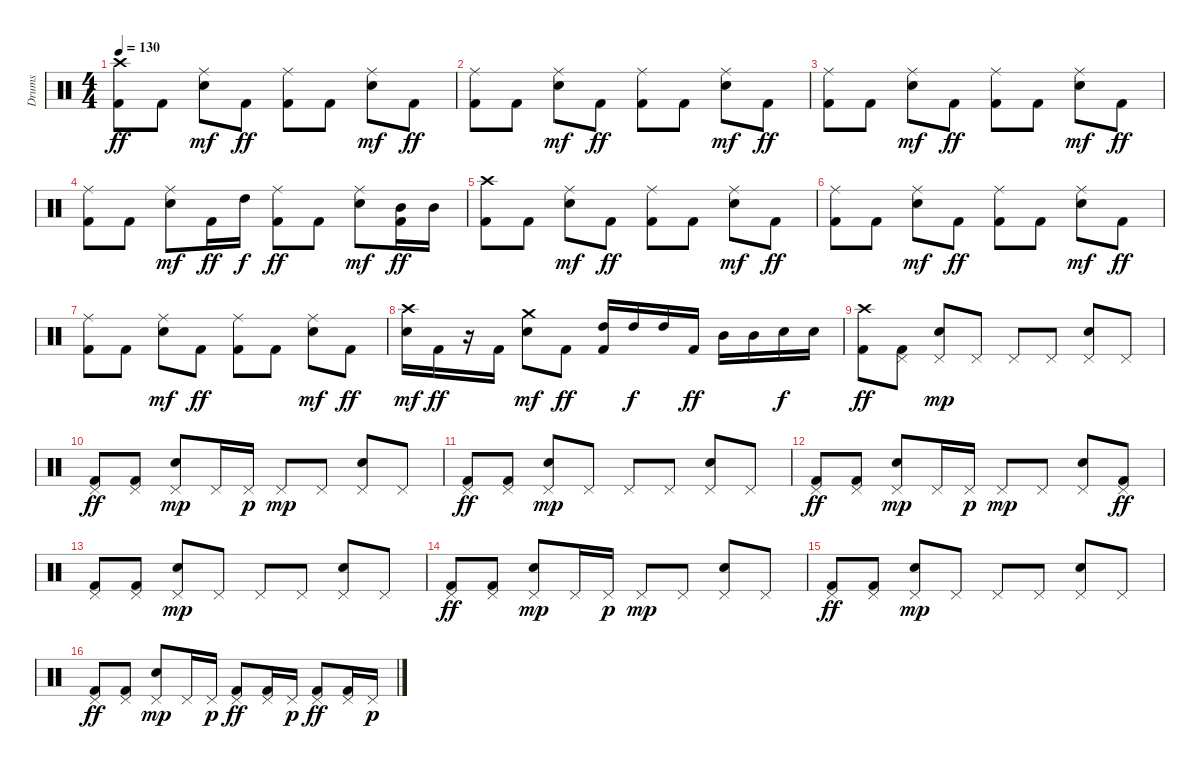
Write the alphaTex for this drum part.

\track ("Drums" "Drums") {instrument percussion}
\staff {score}
\articulation defaults
\ts (4 4)
\tempo 130
\clef neutral
\ks c
("Crash high (hit)" "Kick (hit) 2").8{dy ff} "Kick (hit) 2".8 ("Ride (middle)" "Electric Snare (hit)").8{dy mf} "Kick (hit) 2".8{dy ff} ("Ride (middle)" "Kick (hit) 2").8 "Kick (hit) 2".8 ("Ride (middle)" "Electric Snare (hit)").8{dy mf} "Kick (hit) 2".8{dy ff} |
("Ride (middle)" "Kick (hit) 2").8 "Kick (hit) 2".8 ("Ride (middle)" "Electric Snare (hit)").8{dy mf} "Kick (hit) 2".8{dy ff} ("Ride (middle)" "Kick (hit) 2").8 "Kick (hit) 2".8 ("Ride (middle)" "Electric Snare (hit)").8{dy mf} "Kick (hit) 2".8{dy ff} |
("Ride (middle)" "Kick (hit) 2").8 "Kick (hit) 2".8 ("Ride (middle)" "Electric Snare (hit)").8{dy mf} "Kick (hit) 2".8{dy ff} ("Ride (middle)" "Kick (hit) 2").8 "Kick (hit) 2".8 ("Ride (middle)" "Electric Snare (hit)").8{dy mf} "Kick (hit) 2".8{dy ff} |
("Ride (middle)" "Kick (hit) 2").8 "Kick (hit) 2".8 ("Ride (middle)" "Electric Snare (hit)").8{dy mf} "Kick (hit) 2".16{dy ff} "High Tom (hit)".16{dy f} ("Ride (middle)" "Kick (hit) 2").8{dy ff} "Kick (hit) 2".8 ("Ride (middle)" "Electric Snare (hit)").8{dy mf} ("Mid Tom (hit)" "Kick (hit) 2").16{dy ff} "Mid Tom (hit)".16 |
("Crash high (hit)" "Kick (hit) 2").8 "Kick (hit) 2".8 ("Ride (middle)" "Electric Snare (hit)").8{dy mf} "Kick (hit) 2".8{dy ff} ("Ride (middle)" "Kick (hit) 2").8 "Kick (hit) 2".8 ("Ride (middle)" "Electric Snare (hit)").8{dy mf} "Kick (hit) 2".8{dy ff} |
("Ride (middle)" "Kick (hit) 2").8 "Kick (hit) 2".8 ("Ride (middle)" "Electric Snare (hit)").8{dy mf} "Kick (hit) 2".8{dy ff} ("Ride (middle)" "Kick (hit) 2").8 "Kick (hit) 2".8 ("Ride (middle)" "Electric Snare (hit)").8{dy mf} "Kick (hit) 2".8{dy ff} |
("Ride (middle)" "Kick (hit) 2").8 "Kick (hit) 2".8 ("Ride (middle)" "Electric Snare (hit)").8{dy mf} "Kick (hit) 2".8{dy ff} ("Ride (middle)" "Kick (hit) 2").8 "Kick (hit) 2".8 ("Ride (middle)" "Electric Snare (hit)").8{dy mf} "Kick (hit) 2".8{dy ff} |
("Crash high (hit)" "Electric Snare (hit)").16{dy mf} "Kick (hit) 2".16{dy ff} r.16 "Kick (hit) 2".16 ("Crash medium (hit)" "Electric Snare (hit)").8{dy mf} "Kick (hit) 2".8{dy ff} ("High Tom (hit)" "Kick (hit) 2").16 "High Tom (hit)".16{dy f} "High Tom (hit)".16 "Kick (hit) 2".16{dy ff} "Mid Tom (hit)".16 "Mid Tom (hit)".16 "Electric Snare (hit)".16{dy f} "Electric Snare (hit)".16 |
\section ("" "")
("Crash high (hit)" "Kick (hit) 2").8{dy ff} ("Pedal Hi-Hat (hit)" "Kick (hit) 2").8 ("Pedal Hi-Hat (hit)" "Electric Snare (hit)").8{dy mp} "Pedal Hi-Hat (hit)".8 "Pedal Hi-Hat (hit)".8 "Pedal Hi-Hat (hit)".8 ("Pedal Hi-Hat (hit)" "Electric Snare (hit)").8 "Pedal Hi-Hat (hit)".8 |
("Pedal Hi-Hat (hit)" "Kick (hit) 2").8{dy ff} ("Pedal Hi-Hat (hit)" "Kick (hit) 2").8 ("Pedal Hi-Hat (hit)" "Electric Snare (hit)").8{dy mp} "Pedal Hi-Hat (hit)".16 "Pedal Hi-Hat (hit)".16{dy p} "Pedal Hi-Hat (hit)".8{dy mp} "Pedal Hi-Hat (hit)".8 ("Pedal Hi-Hat (hit)" "Electric Snare (hit)").8 "Pedal Hi-Hat (hit)".8 |
("Pedal Hi-Hat (hit)" "Kick (hit) 2").8{dy ff} ("Pedal Hi-Hat (hit)" "Kick (hit) 2").8 ("Pedal Hi-Hat (hit)" "Electric Snare (hit)").8{dy mp} "Pedal Hi-Hat (hit)".8 "Pedal Hi-Hat (hit)".8 "Pedal Hi-Hat (hit)".8 ("Pedal Hi-Hat (hit)" "Electric Snare (hit)").8 "Pedal Hi-Hat (hit)".8 |
("Pedal Hi-Hat (hit)" "Kick (hit) 2").8{dy ff} ("Pedal Hi-Hat (hit)" "Kick (hit) 2").8 ("Pedal Hi-Hat (hit)" "Electric Snare (hit)").8{dy mp} "Pedal Hi-Hat (hit)".16 "Pedal Hi-Hat (hit)".16{dy p} "Pedal Hi-Hat (hit)".8{dy mp} "Pedal Hi-Hat (hit)".8 ("Pedal Hi-Hat (hit)" "Electric Snare (hit)").8 ("Pedal Hi-Hat (hit)" "Kick (hit) 2").8{dy ff} |
("Pedal Hi-Hat (hit)" "Kick (hit) 2").8 ("Pedal Hi-Hat (hit)" "Kick (hit) 2").8 ("Pedal Hi-Hat (hit)" "Electric Snare (hit)").8{dy mp} "Pedal Hi-Hat (hit)".8 "Pedal Hi-Hat (hit)".8 "Pedal Hi-Hat (hit)".8 ("Pedal Hi-Hat (hit)" "Electric Snare (hit)").8 "Pedal Hi-Hat (hit)".8 |
("Pedal Hi-Hat (hit)" "Kick (hit) 2").8{dy ff} ("Pedal Hi-Hat (hit)" "Kick (hit) 2").8 ("Pedal Hi-Hat (hit)" "Electric Snare (hit)").8{dy mp} "Pedal Hi-Hat (hit)".16 "Pedal Hi-Hat (hit)".16{dy p} "Pedal Hi-Hat (hit)".8{dy mp} "Pedal Hi-Hat (hit)".8 ("Pedal Hi-Hat (hit)" "Electric Snare (hit)").8 "Pedal Hi-Hat (hit)".8 |
("Pedal Hi-Hat (hit)" "Kick (hit) 2").8{dy ff} ("Pedal Hi-Hat (hit)" "Kick (hit) 2").8 ("Pedal Hi-Hat (hit)" "Electric Snare (hit)").8{dy mp} "Pedal Hi-Hat (hit)".8 "Pedal Hi-Hat (hit)".8 "Pedal Hi-Hat (hit)".8 ("Pedal Hi-Hat (hit)" "Electric Snare (hit)").8 "Pedal Hi-Hat (hit)".8 |
("Pedal Hi-Hat (hit)" "Kick (hit) 2").8{dy ff} ("Pedal Hi-Hat (hit)" "Kick (hit) 2").8 ("Pedal Hi-Hat (hit)" "Electric Snare (hit)").8{dy mp} "Pedal Hi-Hat (hit)".16 "Pedal Hi-Hat (hit)".16{dy p} ("Pedal Hi-Hat (hit)" "Kick (hit) 2").8{dy ff} ("Pedal Hi-Hat (hit)" "Kick (hit) 2").16 "Pedal Hi-Hat (hit)".16{dy p} ("Pedal Hi-Hat (hit)" "Kick (hit) 2").8{dy ff} ("Pedal Hi-Hat (hit)" "Kick (hit) 2").16 "Pedal Hi-Hat (hit)".16{dy p}
